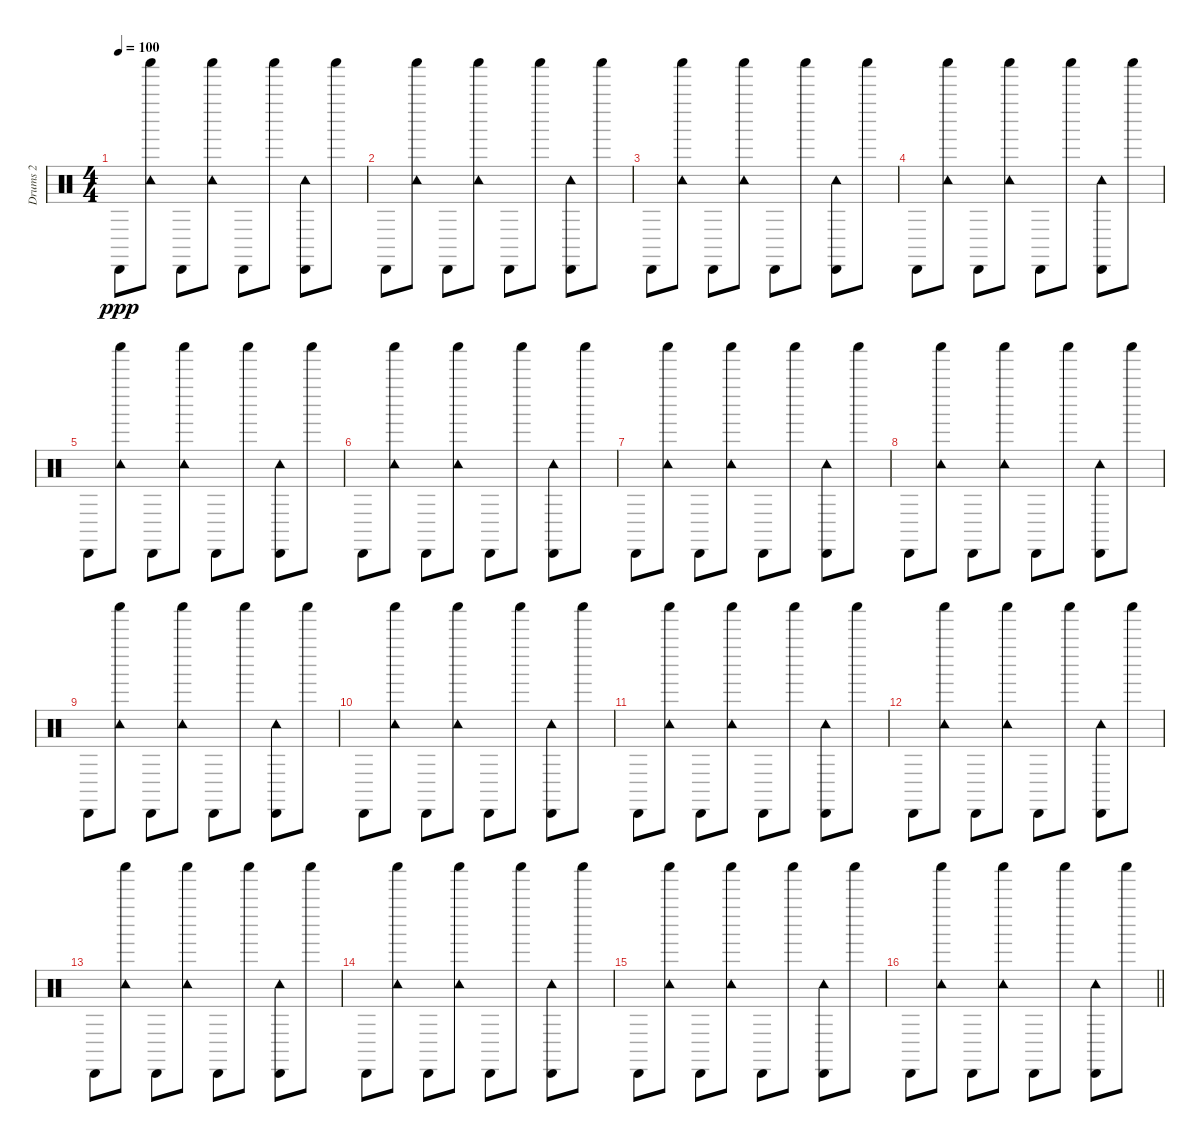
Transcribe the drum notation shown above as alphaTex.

\track ("Drums 2" "Drums 2") {instrument percussion}
\staff {score}
\articulation defaults
\ts (4 4)
\tempo 100
\clef neutral
\ks c "Cabasa (hit)".8{dy ppp}
("Tambourine (hit)" "Shaker (hit)").8 "Cabasa (hit)".8 ("Tambourine (hit)" "Shaker (hit)").8 "Cabasa (hit)".8 "Shaker (hit)".8 ("Tambourine (hit)" "Cabasa (hit)").8 "Shaker (hit)".8 |
"Cabasa (hit)".8 ("Tambourine (hit)" "Shaker (hit)").8 "Cabasa (hit)".8 ("Tambourine (hit)" "Shaker (hit)").8 "Cabasa (hit)".8 "Shaker (hit)".8 ("Tambourine (hit)" "Cabasa (hit)").8 "Shaker (hit)".8 |
"Cabasa (hit)".8 ("Tambourine (hit)" "Shaker (hit)").8 "Cabasa (hit)".8 ("Tambourine (hit)" "Shaker (hit)").8 "Cabasa (hit)".8 "Shaker (hit)".8 ("Tambourine (hit)" "Cabasa (hit)").8 "Shaker (hit)".8 |
"Cabasa (hit)".8 ("Tambourine (hit)" "Shaker (hit)").8 "Cabasa (hit)".8 ("Tambourine (hit)" "Shaker (hit)").8 "Cabasa (hit)".8 "Shaker (hit)".8 ("Tambourine (hit)" "Cabasa (hit)").8 "Shaker (hit)".8 |
"Cabasa (hit)".8 ("Tambourine (hit)" "Shaker (hit)").8 "Cabasa (hit)".8 ("Tambourine (hit)" "Shaker (hit)").8 "Cabasa (hit)".8 "Shaker (hit)".8 ("Tambourine (hit)" "Cabasa (hit)").8 "Shaker (hit)".8 |
"Cabasa (hit)".8 ("Tambourine (hit)" "Shaker (hit)").8 "Cabasa (hit)".8 ("Tambourine (hit)" "Shaker (hit)").8 "Cabasa (hit)".8 "Shaker (hit)".8 ("Tambourine (hit)" "Cabasa (hit)").8 "Shaker (hit)".8 |
"Cabasa (hit)".8 ("Tambourine (hit)" "Shaker (hit)").8 "Cabasa (hit)".8 ("Tambourine (hit)" "Shaker (hit)").8 "Cabasa (hit)".8 "Shaker (hit)".8 ("Tambourine (hit)" "Cabasa (hit)").8 "Shaker (hit)".8 |
"Cabasa (hit)".8 ("Tambourine (hit)" "Shaker (hit)").8 "Cabasa (hit)".8 ("Tambourine (hit)" "Shaker (hit)").8 "Cabasa (hit)".8 "Shaker (hit)".8 ("Tambourine (hit)" "Cabasa (hit)").8 "Shaker (hit)".8 |
"Cabasa (hit)".8 ("Tambourine (hit)" "Shaker (hit)").8 "Cabasa (hit)".8 ("Tambourine (hit)" "Shaker (hit)").8 "Cabasa (hit)".8 "Shaker (hit)".8 ("Tambourine (hit)" "Cabasa (hit)").8 "Shaker (hit)".8 |
"Cabasa (hit)".8 ("Tambourine (hit)" "Shaker (hit)").8 "Cabasa (hit)".8 ("Tambourine (hit)" "Shaker (hit)").8 "Cabasa (hit)".8 "Shaker (hit)".8 ("Tambourine (hit)" "Cabasa (hit)").8 "Shaker (hit)".8 |
"Cabasa (hit)".8 ("Tambourine (hit)" "Shaker (hit)").8 "Cabasa (hit)".8 ("Tambourine (hit)" "Shaker (hit)").8 "Cabasa (hit)".8 "Shaker (hit)".8 ("Tambourine (hit)" "Cabasa (hit)").8 "Shaker (hit)".8 |
"Cabasa (hit)".8 ("Tambourine (hit)" "Shaker (hit)").8 "Cabasa (hit)".8 ("Tambourine (hit)" "Shaker (hit)").8 "Cabasa (hit)".8 "Shaker (hit)".8 ("Tambourine (hit)" "Cabasa (hit)").8 "Shaker (hit)".8 |
"Cabasa (hit)".8 ("Tambourine (hit)" "Shaker (hit)").8 "Cabasa (hit)".8 ("Tambourine (hit)" "Shaker (hit)").8 "Cabasa (hit)".8 "Shaker (hit)".8 ("Tambourine (hit)" "Cabasa (hit)").8 "Shaker (hit)".8 |
"Cabasa (hit)".8 ("Tambourine (hit)" "Shaker (hit)").8 "Cabasa (hit)".8 ("Tambourine (hit)" "Shaker (hit)").8 "Cabasa (hit)".8 "Shaker (hit)".8 ("Tambourine (hit)" "Cabasa (hit)").8 "Shaker (hit)".8 |
"Cabasa (hit)".8 ("Tambourine (hit)" "Shaker (hit)").8 "Cabasa (hit)".8 ("Tambourine (hit)" "Shaker (hit)").8 "Cabasa (hit)".8 "Shaker (hit)".8 ("Tambourine (hit)" "Cabasa (hit)").8 "Shaker (hit)".8 |
\barLineRight lightlight "Cabasa (hit)".8
("Tambourine (hit)" "Shaker (hit)").8 "Cabasa (hit)".8 ("Tambourine (hit)" "Shaker (hit)").8 "Cabasa (hit)".8 "Shaker (hit)".8 ("Tambourine (hit)" "Cabasa (hit)").8 "Shaker (hit)".8
